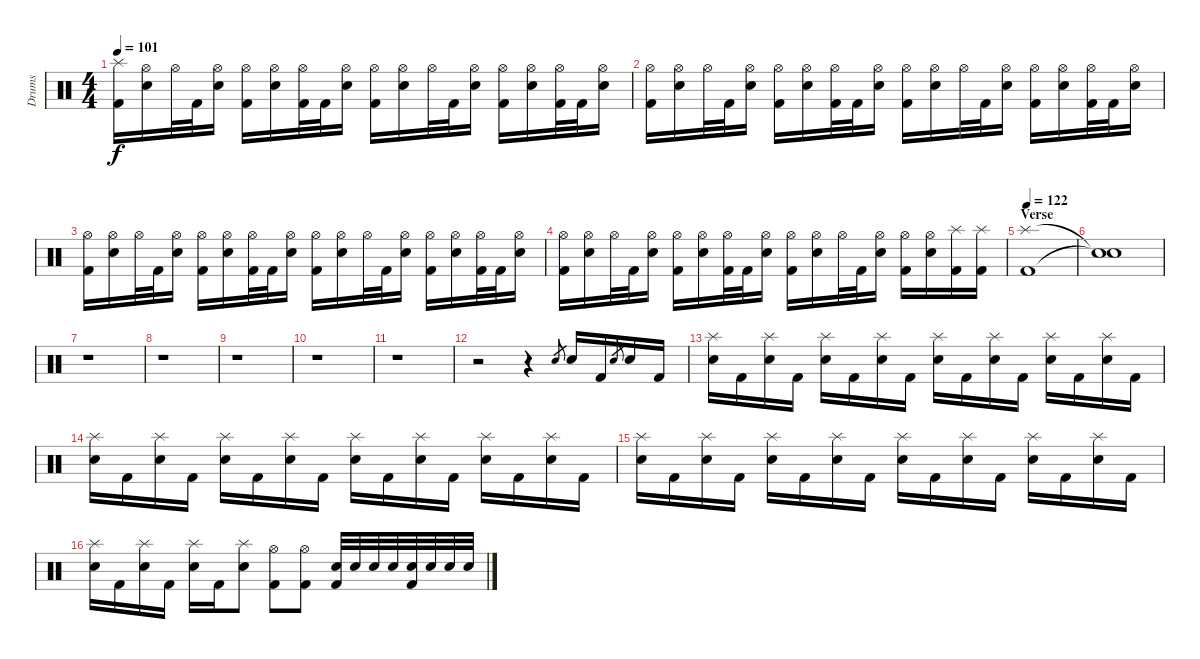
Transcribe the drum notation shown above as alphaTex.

\track ("Drums" "Drums") {instrument percussion}
\staff {score}
\articulation defaults
\ts (4 4)
\tempo 101
\clef neutral
\ks c
("Splash (hit)" "Kick (hit) 2").16{dy f} ("Hi-Hat (open)" "Electric Snare (hit)").16 "Hi-Hat (open)".32 "Kick (hit) 2".32 ("Hi-Hat (open)" "Electric Snare (hit)").16 ("Hi-Hat (open)" "Kick (hit) 2").16 ("Hi-Hat (open)" "Electric Snare (hit)").16 ("Hi-Hat (open)" "Kick (hit) 2").32 "Kick (hit) 2".32 ("Hi-Hat (open)" "Electric Snare (hit)").16 ("Hi-Hat (open)" "Kick (hit) 2").16 ("Hi-Hat (open)" "Electric Snare (hit)").16 "Hi-Hat (open)".32 "Kick (hit) 2".32 ("Hi-Hat (open)" "Electric Snare (hit)").16 ("Hi-Hat (open)" "Kick (hit) 2").16 ("Hi-Hat (open)" "Electric Snare (hit)").16 ("Hi-Hat (open)" "Kick (hit) 2").32 "Kick (hit) 2".32 ("Hi-Hat (open)" "Electric Snare (hit)").16 |
("Hi-Hat (open)" "Kick (hit) 2").16 ("Hi-Hat (open)" "Electric Snare (hit)").16 "Hi-Hat (open)".32 "Kick (hit) 2".32 ("Hi-Hat (open)" "Electric Snare (hit)").16 ("Hi-Hat (open)" "Kick (hit) 2").16 ("Hi-Hat (open)" "Electric Snare (hit)").16 ("Hi-Hat (open)" "Kick (hit) 2").32 "Kick (hit) 2".32 ("Hi-Hat (open)" "Electric Snare (hit)").16 ("Hi-Hat (open)" "Kick (hit) 2").16 ("Hi-Hat (open)" "Electric Snare (hit)").16 "Hi-Hat (open)".32 "Kick (hit) 2".32 ("Hi-Hat (open)" "Electric Snare (hit)").16 ("Hi-Hat (open)" "Kick (hit) 2").16 ("Hi-Hat (open)" "Electric Snare (hit)").16 ("Hi-Hat (open)" "Kick (hit) 2").32 "Kick (hit) 2".32 ("Hi-Hat (open)" "Electric Snare (hit)").16 |
("Hi-Hat (open)" "Kick (hit) 2").16 ("Hi-Hat (open)" "Electric Snare (hit)").16 "Hi-Hat (open)".32 "Kick (hit) 2".32 ("Hi-Hat (open)" "Electric Snare (hit)").16 ("Hi-Hat (open)" "Kick (hit) 2").16 ("Hi-Hat (open)" "Electric Snare (hit)").16 ("Hi-Hat (open)" "Kick (hit) 2").32 "Kick (hit) 2".32 ("Hi-Hat (open)" "Electric Snare (hit)").16 ("Hi-Hat (open)" "Kick (hit) 2").16 ("Hi-Hat (open)" "Electric Snare (hit)").16 "Hi-Hat (open)".32 "Kick (hit) 2".32 ("Hi-Hat (open)" "Electric Snare (hit)").16 ("Hi-Hat (open)" "Kick (hit) 2").16 ("Hi-Hat (open)" "Electric Snare (hit)").16 ("Hi-Hat (open)" "Kick (hit) 2").32 "Kick (hit) 2".32 ("Hi-Hat (open)" "Electric Snare (hit)").16 |
("Hi-Hat (open)" "Kick (hit) 2").16 ("Hi-Hat (open)" "Electric Snare (hit)").16 "Hi-Hat (open)".32 "Kick (hit) 2".32 ("Hi-Hat (open)" "Electric Snare (hit)").16 ("Hi-Hat (open)" "Kick (hit) 2").16 ("Hi-Hat (open)" "Electric Snare (hit)").16 ("Hi-Hat (open)" "Kick (hit) 2").32 "Kick (hit) 2".32 ("Hi-Hat (open)" "Electric Snare (hit)").16 ("Hi-Hat (open)" "Kick (hit) 2").16 ("Hi-Hat (open)" "Electric Snare (hit)").16 "Hi-Hat (open)".32 "Kick (hit) 2".32 ("Hi-Hat (open)" "Electric Snare (hit)").16 ("Hi-Hat (open)" "Kick (hit) 2").16 ("Hi-Hat (open)" "Electric Snare (hit)").16 ("Splash (hit)" "Kick (hit) 2").16 ("Splash (hit)" "Kick (hit) 2").16 |
\section ("" "Verse")
\tempo 122
("Splash (hit)" "Kick (hit) 2").1 |
("Snare (hit)"{t} "Snare (hit)"{t}).1 |
r.1 |
r.1 |
r.1 |
r.1 |
r.1 |
r.2 r.4 "Electric Snare (hit)".8{gr} "Electric Snare (hit)".16 "Kick (hit) 2".16 "Electric Snare (hit)".8{gr} "Electric Snare (hit)".16 "Kick (hit) 2".16 |
("Splash (hit)" "Electric Snare (hit)").16 "Kick (hit) 2".16 ("Splash (hit)" "Electric Snare (hit)").16 "Kick (hit) 2".16 ("Splash (hit)" "Electric Snare (hit)").16 "Kick (hit) 2".16 ("Splash (hit)" "Electric Snare (hit)").16 "Kick (hit) 2".16 ("Splash (hit)" "Electric Snare (hit)").16 "Kick (hit) 2".16 ("Splash (hit)" "Electric Snare (hit)").16 "Kick (hit) 2".16 ("Splash (hit)" "Electric Snare (hit)").16 "Kick (hit) 2".16 ("Splash (hit)" "Electric Snare (hit)").16 "Kick (hit) 2".16 |
("Splash (hit)" "Electric Snare (hit)").16 "Kick (hit) 2".16 ("Splash (hit)" "Electric Snare (hit)").16 "Kick (hit) 2".16 ("Splash (hit)" "Electric Snare (hit)").16 "Kick (hit) 2".16 ("Splash (hit)" "Electric Snare (hit)").16 "Kick (hit) 2".16 ("Splash (hit)" "Electric Snare (hit)").16 "Kick (hit) 2".16 ("Splash (hit)" "Electric Snare (hit)").16 "Kick (hit) 2".16 ("Splash (hit)" "Electric Snare (hit)").16 "Kick (hit) 2".16 ("Splash (hit)" "Electric Snare (hit)").16 "Kick (hit) 2".16 |
("Splash (hit)" "Electric Snare (hit)").16 "Kick (hit) 2".16 ("Splash (hit)" "Electric Snare (hit)").16 "Kick (hit) 2".16 ("Splash (hit)" "Electric Snare (hit)").16 "Kick (hit) 2".16 ("Splash (hit)" "Electric Snare (hit)").16 "Kick (hit) 2".16 ("Splash (hit)" "Electric Snare (hit)").16 "Kick (hit) 2".16 ("Splash (hit)" "Electric Snare (hit)").16 "Kick (hit) 2".16 ("Splash (hit)" "Electric Snare (hit)").16 "Kick (hit) 2".16 ("Splash (hit)" "Electric Snare (hit)").16 "Kick (hit) 2".16 |
("Splash (hit)" "Electric Snare (hit)").16 "Kick (hit) 2".16 ("Splash (hit)" "Electric Snare (hit)").16 "Kick (hit) 2".16 ("Splash (hit)" "Electric Snare (hit)").16 "Kick (hit) 2".16 ("Splash (hit)" "Electric Snare (hit)").8 ("Hi-Hat (open)" "Kick (hit) 2").8 ("Hi-Hat (open)" "Kick (hit) 2").8 ("Electric Snare (hit)" "Kick (hit) 2").32 "Electric Snare (hit)".32 "Electric Snare (hit)".32 "Electric Snare (hit)".32 ("Electric Snare (hit)" "Kick (hit) 2").32 "Electric Snare (hit)".32 "Electric Snare (hit)".32 "Electric Snare (hit)".32
